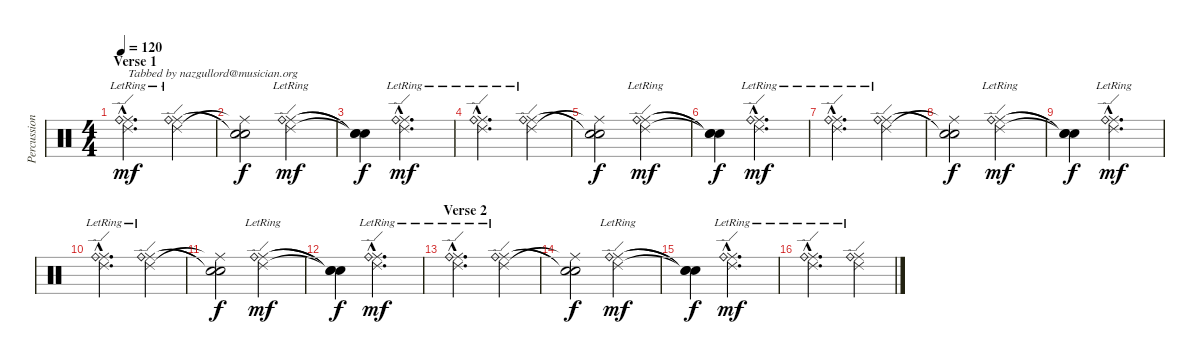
\track ("Percussion" "Percussion") {instrument percussion}
\staff {score}
\articulation defaults
\ts (4 4)
\section ("" "Verse 1")
\tempo 120
\clef neutral
\ks c
("Ride (edge) 2"{hac lr} "Ride (middle)"{hac} "Ride (bell)"{hac}).2{d txt "Tabbed by nazgullord@musician.org" dy mf} ("Ride (edge) 2"{lr} "Ride (middle)" "Ride (bell)").4 |
("Ride (middle)"{t} "Snare (hit)"{t} "Snare (hit)"{t}).2{dy f} ("Ride (edge) 2"{lr} "Ride (middle)" "Ride (bell)").2{dy mf} |
("Snare (hit)"{t} "Snare (hit)"{t} "Snare (hit)"{t}).4{dy f} ("Ride (edge) 2"{hac lr} "Ride (middle)"{hac} "Ride (bell)"{hac}).2{d dy mf} |
("Ride (edge) 2"{hac lr} "Ride (middle)"{hac} "Ride (bell)"{hac}).2{d} ("Ride (edge) 2"{lr} "Ride (middle)" "Ride (bell)").4 |
("Ride (middle)"{t} "Snare (hit)"{t} "Snare (hit)"{t}).2{dy f} ("Ride (edge) 2"{lr} "Ride (middle)" "Ride (bell)").2{dy mf} |
("Snare (hit)"{t} "Snare (hit)"{t} "Snare (hit)"{t}).4{dy f} ("Ride (edge) 2"{hac lr} "Ride (middle)"{hac} "Ride (bell)"{hac}).2{d dy mf} |
("Ride (edge) 2"{hac lr} "Ride (middle)"{hac} "Ride (bell)"{hac}).2{d} ("Ride (edge) 2"{lr} "Ride (middle)" "Ride (bell)").4 |
("Ride (middle)"{t} "Snare (hit)"{t} "Snare (hit)"{t}).2{dy f} ("Ride (edge) 2"{lr} "Ride (middle)" "Ride (bell)").2{dy mf} |
("Snare (hit)"{t} "Snare (hit)"{t} "Snare (hit)"{t}).4{dy f} ("Ride (edge) 2"{hac lr} "Ride (middle)"{hac} "Ride (bell)"{hac}).2{d dy mf} |
("Ride (edge) 2"{hac lr} "Ride (middle)"{hac} "Ride (bell)"{hac}).2{d} ("Ride (edge) 2"{lr} "Ride (middle)" "Ride (bell)").4 |
("Ride (middle)"{t} "Snare (hit)"{t} "Snare (hit)"{t}).2{dy f} ("Ride (edge) 2"{lr} "Ride (middle)" "Ride (bell)").2{dy mf} |
("Snare (hit)"{t} "Snare (hit)"{t} "Snare (hit)"{t}).4{dy f} ("Ride (edge) 2"{hac lr} "Ride (middle)"{hac} "Ride (bell)"{hac}).2{d dy mf} |
\section ("" "Verse 2")
("Ride (edge) 2"{hac lr} "Ride (middle)"{hac} "Ride (bell)"{hac}).2{d} ("Ride (edge) 2"{lr} "Ride (middle)" "Ride (bell)").4 |
("Ride (middle)"{t} "Snare (hit)"{t} "Snare (hit)"{t}).2{dy f} ("Ride (edge) 2"{lr} "Ride (middle)" "Ride (bell)").2{dy mf} |
("Snare (hit)"{t} "Snare (hit)"{t} "Snare (hit)"{t}).4{dy f} ("Ride (edge) 2"{hac lr} "Ride (middle)"{hac} "Ride (bell)"{hac}).2{d dy mf} |
("Ride (edge) 2"{hac lr} "Ride (middle)"{hac} "Ride (bell)"{hac}).2{d} ("Ride (edge) 2"{lr} "Ride (middle)" "Ride (bell)").4
